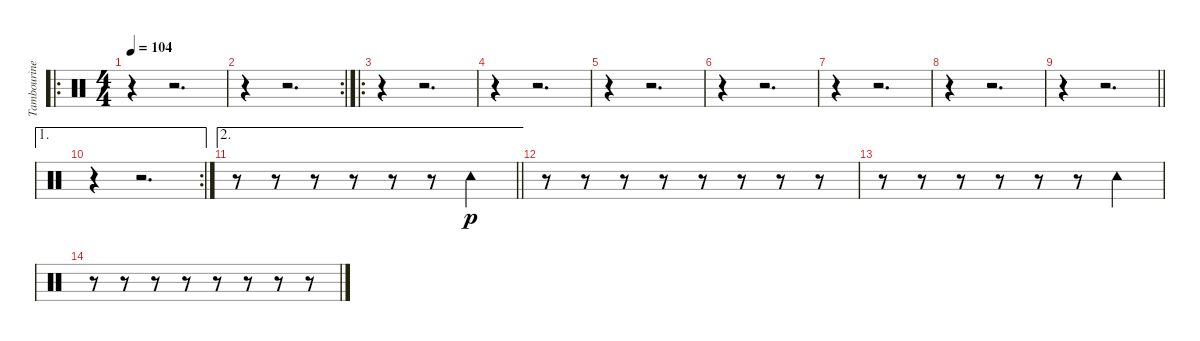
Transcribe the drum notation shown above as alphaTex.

\track ("Tambourine" "Tambourine") {instrument percussion}
\staff {score}
\articulation defaults
\ro
\ts (4 4)
\tempo 104
\clef neutral
\ks c
r.4{dy p} r.2{d} |
\rc 2
r.4 r.2{d} |
\ro
r.4 r.2{d} |
r.4 r.2{d} |
r.4 r.2{d} |
r.4 r.2{d} |
r.4 r.2{d} |
r.4 r.2{d} |
\barLineRight lightlight
r.4 r.2{d} |
\ae 1
\rc 2
r.4 r.2{d} |
\ae 2
\barLineRight lightlight
r.8 r.8 r.8 r.8 r.8 r.8 "Tambourine (hit)".4 |
r.8 r.8 r.8 r.8 r.8 r.8 r.8 r.8 |
r.8 r.8 r.8 r.8 r.8 r.8 "Tambourine (hit)".4 |
r.8 r.8 r.8 r.8 r.8 r.8 r.8 r.8
